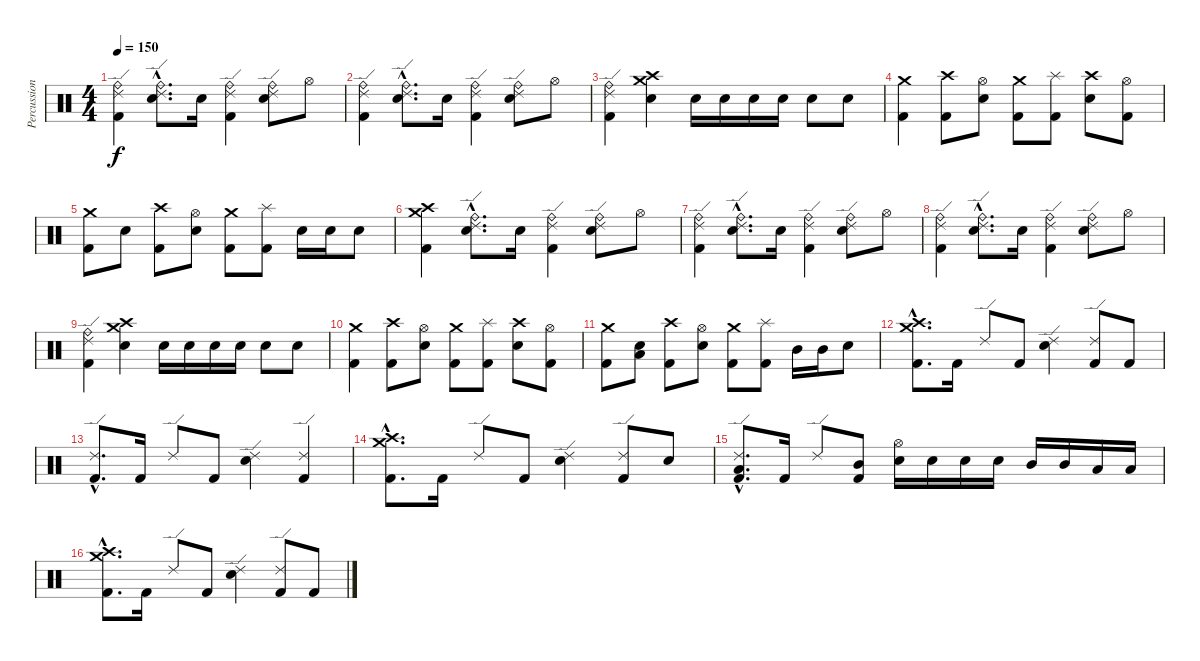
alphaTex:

\track ("Percussion" "Percussion") {instrument percussion}
\staff {score}
\articulation defaults
\ts (4 4)
\tempo 150
\clef neutral
\ks c
("Ride (bell)" "Ride (edge) 2" "Kick (hit) 2").4{dy f} ("Ride (bell)"{hac} "Ride (edge) 2"{hac} "Snare (hit) 2"{hac}).8{d} "Snare (hit) 2".16 ("Ride (bell)" "Ride (edge) 2" "Kick (hit) 2").4 ("Ride (bell)" "Ride (edge) 2" "Snare (hit) 2").8 "Hi-Hat (open)".8 |
("Ride (bell)" "Ride (edge) 2" "Kick (hit) 2").4 ("Ride (bell)"{hac} "Ride (edge) 2"{hac} "Snare (hit) 2"{hac}).8{d} "Snare (hit) 2".16 ("Ride (bell)" "Ride (edge) 2" "Kick (hit) 2").4 ("Ride (bell)" "Ride (edge) 2" "Snare (hit) 2").8 "Hi-Hat (open)".8 |
("Ride (edge) 2" "Ride (bell)" "Kick (hit) 2").4 ("Crash medium (hit)" "Crash high (hit)" "Snare (hit) 2").4 "Snare (hit) 2".16 "Snare (hit) 2".16 "Snare (hit) 2".16 "Snare (hit) 2".16 "Snare (hit) 2".8 "Snare (hit) 2".8 |
("Crash medium (hit)" "Kick (hit) 2").4 ("Crash high (hit)" "Kick (hit) 2").8 ("Hi-Hat (open)" "Snare (hit) 2").8 ("Crash medium (hit)" "Kick (hit) 2").8 ("Splash (hit)" "Kick (hit) 2").8 ("Crash high (hit)" "Snare (hit) 2").8 ("Hi-Hat (open)" "Kick (hit) 2").8 |
("Crash medium (hit)" "Kick (hit) 2").8 "Snare (hit) 2".8 ("Crash high (hit)" "Kick (hit) 2").8 ("Hi-Hat (open)" "Snare (hit) 2").8 ("Crash medium (hit)" "Kick (hit) 2").8 ("Splash (hit)" "Kick (hit) 2").8 "Snare (hit) 2".16 "Snare (hit) 2".16 "Snare (hit) 2".8 |
("Crash high (hit)" "Crash medium (hit)" "Kick (hit) 2").4 ("Ride (bell)"{hac} "Ride (edge) 2"{hac} "Snare (hit) 2"{hac}).8{d} "Snare (hit) 2".16 ("Ride (bell)" "Ride (edge) 2" "Kick (hit) 2").4 ("Ride (bell)" "Ride (edge) 2" "Snare (hit) 2").8 "Hi-Hat (open)".8 |
("Ride (bell)" "Ride (edge) 2" "Kick (hit) 2").4 ("Ride (bell)"{hac} "Ride (edge) 2"{hac} "Snare (hit) 2"{hac}).8{d} "Snare (hit) 2".16 ("Ride (bell)" "Ride (edge) 2" "Kick (hit) 2").4 ("Ride (bell)" "Ride (edge) 2" "Snare (hit) 2").8 "Hi-Hat (open)".8 |
("Ride (bell)" "Ride (edge) 2" "Kick (hit) 2").4 ("Ride (bell)"{hac} "Ride (edge) 2"{hac} "Snare (hit) 2"{hac}).8{d} "Snare (hit) 2".16 ("Ride (bell)" "Ride (edge) 2" "Kick (hit) 2").4 ("Ride (bell)" "Ride (edge) 2" "Snare (hit) 2").8 "Hi-Hat (open)".8 |
("Ride (edge) 2" "Ride (bell)" "Kick (hit) 2").4 ("Crash medium (hit)" "Crash high (hit)" "Snare (hit) 2").4 "Snare (hit) 2".16 "Snare (hit) 2".16 "Snare (hit) 2".16 "Snare (hit) 2".16 "Snare (hit) 2".8 "Snare (hit) 2".8 |
("Crash medium (hit)" "Kick (hit) 2").4 ("Crash high (hit)" "Kick (hit) 2").8 ("Hi-Hat (open)" "Snare (hit) 2").8 ("Crash medium (hit)" "Kick (hit) 2").8 ("Splash (hit)" "Kick (hit) 2").8 ("Crash high (hit)" "Snare (hit) 2").8 ("Hi-Hat (open)" "Kick (hit) 2").8 |
("Crash medium (hit)" "Kick (hit) 2").8 ("Low Floor Tom (hit)" "Snare (hit) 2").8 ("Crash high (hit)" "Kick (hit) 2").8 ("Hi-Hat (open)" "Snare (hit) 2").8 ("Crash medium (hit)" "Kick (hit) 2").8 ("Splash (hit)" "Kick (hit) 2").8 "Mid Tom (hit)".16 "Mid Tom (hit)".16 "Snare (hit) 2".8 |
("Crash medium (hit)"{hac} "Crash high (hit)"{hac} "Kick (hit) 2"{hac}).8{d} "Kick (hit) 2".16 "Ride (edge) 2".8 "Kick (hit) 2".8 ("Ride (edge) 2" "Snare (hit) 2").4 ("Ride (edge) 2" "Kick (hit) 2").8 "Kick (hit) 2".8 |
("Ride (edge) 2"{hac} "Kick (hit) 2"{hac}).8{d} "Kick (hit) 2".16 "Ride (edge) 2".8 "Kick (hit) 2".8 ("Ride (edge) 2" "Snare (hit) 2").4 ("Ride (edge) 2" "Kick (hit) 2").4 |
("Crash medium (hit)"{hac} "Crash high (hit)"{hac} "Kick (hit) 2"{hac}).8{d} "Kick (hit) 2".16 "Ride (edge) 2".8 "Kick (hit) 2".8 ("Ride (edge) 2" "Snare (hit) 2").4 ("Ride (edge) 2" "Kick (hit) 2").8 "Snare (hit) 2".8 |
("Ride (edge) 2"{hac} "Low Floor Tom (hit)"{hac} "Kick (hit) 2"{hac}).8{d} "Kick (hit) 2".16 "Ride (edge) 2".8 ("Mid Tom (hit)" "Kick (hit) 2").8 ("Hi-Hat (open)" "Snare (hit) 2").16 "Snare (hit) 2".16 "Snare (hit) 2".16 "Snare (hit) 2".16 "Mid Tom (hit)".16 "Mid Tom (hit)".16 "Low Tom (hit)".16 "Low Tom (hit)".16 |
("Crash medium (hit)"{hac} "Crash high (hit)"{hac} "Kick (hit) 2"{hac}).8{d} "Kick (hit) 2".16 "Ride (edge) 2".8 "Kick (hit) 2".8 ("Ride (edge) 2" "Snare (hit) 2").4 ("Ride (edge) 2" "Kick (hit) 2").8 "Kick (hit) 2".8
